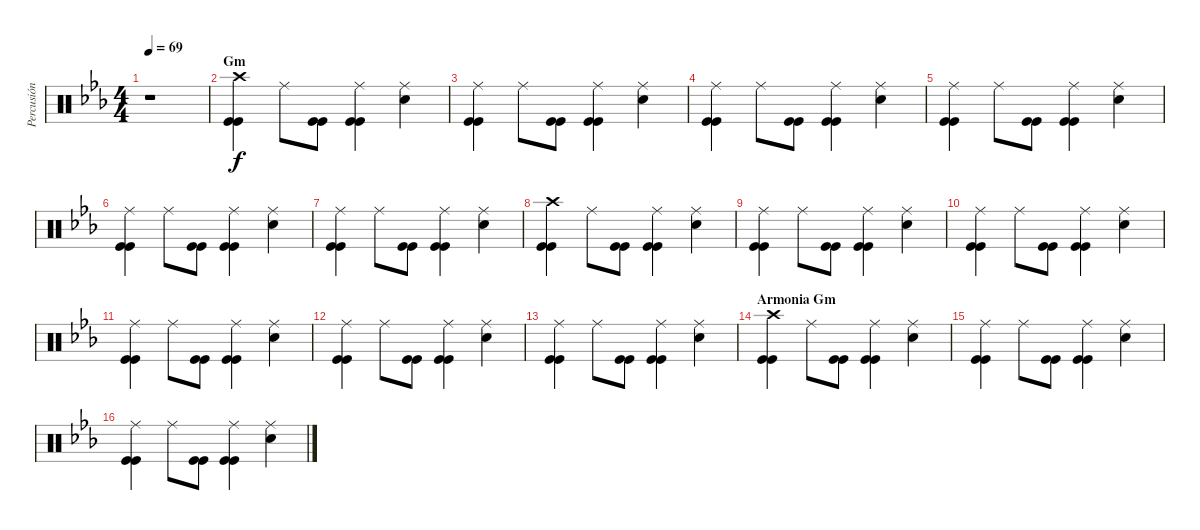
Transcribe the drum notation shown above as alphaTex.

\track ("Percusión" "Percusión") {instrument percussion}
\staff {score}
\articulation defaults
\ts (4 4)
\tempo 69
\clef neutral
\ks cminor
r.1{dy f} |
\section ("" "Gm")
("Crash high (hit)" "Kick (hit)" "Kick (hit)").4{volume 9 balance 8} "Ride (middle)".8 ("Kick (hit)" "Kick (hit)").8 ("Ride (middle)" "Kick (hit)" "Kick (hit)").4 ("Ride (middle)" "Electric Snare (hit)").4 |
("Ride (middle)" "Kick (hit)" "Kick (hit)").4 "Ride (middle)".8 ("Kick (hit)" "Kick (hit)").8 ("Ride (middle)" "Kick (hit)" "Kick (hit)").4 ("Ride (middle)" "Electric Snare (hit)").4 |
("Ride (middle)" "Kick (hit)" "Kick (hit)").4 "Ride (middle)".8 ("Kick (hit)" "Kick (hit)").8 ("Ride (middle)" "Kick (hit)" "Kick (hit)").4 ("Ride (middle)" "Electric Snare (hit)").4 |
("Ride (middle)" "Kick (hit)" "Kick (hit)").4 "Ride (middle)".8 ("Kick (hit)" "Kick (hit)").8 ("Ride (middle)" "Kick (hit)" "Kick (hit)").4 ("Ride (middle)" "Electric Snare (hit)").4 |
("Ride (middle)" "Kick (hit)" "Kick (hit)").4 "Ride (middle)".8 ("Kick (hit)" "Kick (hit)").8 ("Ride (middle)" "Kick (hit)" "Kick (hit)").4 ("Ride (middle)" "Electric Snare (hit)").4 |
("Ride (middle)" "Kick (hit)" "Kick (hit)").4 "Ride (middle)".8 ("Kick (hit)" "Kick (hit)").8 ("Ride (middle)" "Kick (hit)" "Kick (hit)").4 ("Ride (middle)" "Electric Snare (hit)").4 |
("Crash high (hit)" "Kick (hit)" "Kick (hit)").4 "Ride (middle)".8 ("Kick (hit)" "Kick (hit)").8 ("Ride (middle)" "Kick (hit)" "Kick (hit)").4 ("Ride (middle)" "Electric Snare (hit)").4 |
("Ride (middle)" "Kick (hit)" "Kick (hit)").4 "Ride (middle)".8 ("Kick (hit)" "Kick (hit)").8 ("Ride (middle)" "Kick (hit)" "Kick (hit)").4 ("Ride (middle)" "Electric Snare (hit)").4 |
("Ride (middle)" "Kick (hit)" "Kick (hit)").4 "Ride (middle)".8 ("Kick (hit)" "Kick (hit)").8 ("Ride (middle)" "Kick (hit)" "Kick (hit)").4 ("Ride (middle)" "Electric Snare (hit)").4 |
("Ride (middle)" "Kick (hit)" "Kick (hit)").4 "Ride (middle)".8 ("Kick (hit)" "Kick (hit)").8 ("Ride (middle)" "Kick (hit)" "Kick (hit)").4 ("Ride (middle)" "Electric Snare (hit)").4 |
("Ride (middle)" "Kick (hit)" "Kick (hit)").4 "Ride (middle)".8 ("Kick (hit)" "Kick (hit)").8 ("Ride (middle)" "Kick (hit)" "Kick (hit)").4 ("Ride (middle)" "Electric Snare (hit)").4 |
("Ride (middle)" "Kick (hit)" "Kick (hit)").4 "Ride (middle)".8 ("Kick (hit)" "Kick (hit)").8 ("Ride (middle)" "Kick (hit)" "Kick (hit)").4 ("Ride (middle)" "Electric Snare (hit)").4 |
\section ("" "Armonia Gm")
("Crash high (hit)" "Kick (hit)" "Kick (hit)").4 "Ride (middle)".8 ("Kick (hit)" "Kick (hit)").8 ("Ride (middle)" "Kick (hit)" "Kick (hit)").4 ("Ride (middle)" "Electric Snare (hit)").4 |
("Ride (middle)" "Kick (hit)" "Kick (hit)").4 "Ride (middle)".8 ("Kick (hit)" "Kick (hit)").8 ("Ride (middle)" "Kick (hit)" "Kick (hit)").4 ("Ride (middle)" "Electric Snare (hit)").4 |
("Ride (middle)" "Kick (hit)" "Kick (hit)").4 "Ride (middle)".8 ("Kick (hit)" "Kick (hit)").8 ("Ride (middle)" "Kick (hit)" "Kick (hit)").4 ("Ride (middle)" "Electric Snare (hit)").4
